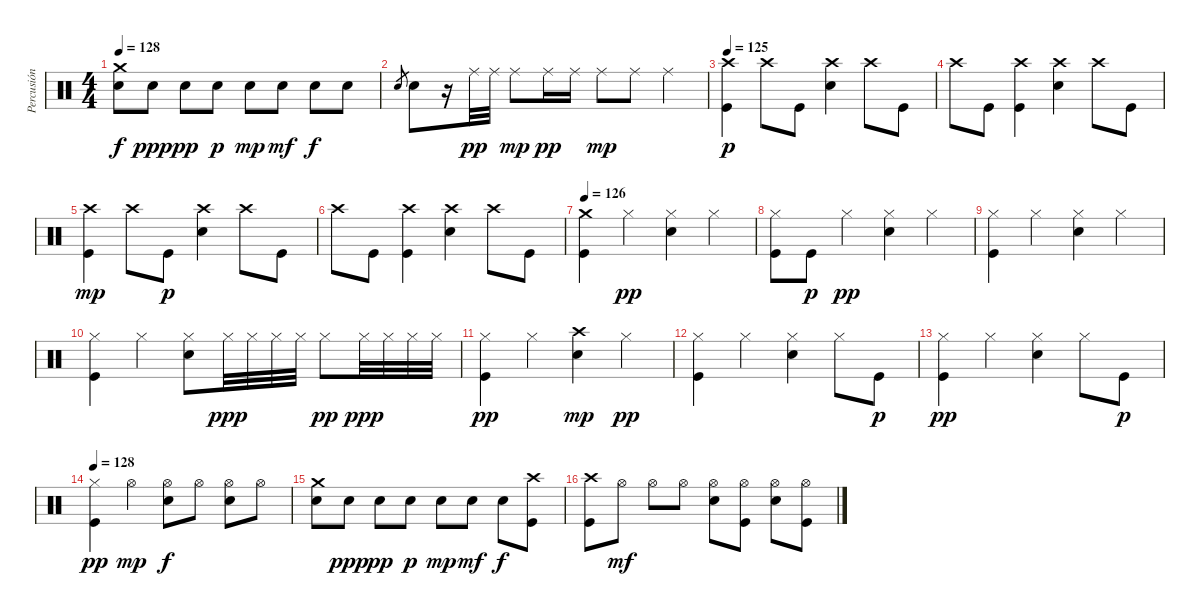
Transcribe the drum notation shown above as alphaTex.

\track ("Percusión" "Percusión") {instrument percussion}
\staff {score}
\articulation defaults
\ts (4 4)
\tempo 128
\clef neutral
\ks c
("Snare (hit) 2" "Crash medium (hit)").8{dy f} "Snare (hit) 2".8{dy ppp} "Snare (hit) 2".8{dy pp} "Snare (hit) 2".8{dy p} "Snare (hit) 2".8{dy mp} "Snare (hit) 2".8{dy mf} "Snare (hit) 2".8{dy f} "Snare (hit) 2".8 |
"Snare (hit) 2".8{gr} "Snare (hit) 2".8 r.16 "Ride (middle)".32{dy pp} "Ride (middle)".32 "Ride (middle)".8{dy mp} "Ride (middle)".16{dy pp} "Ride (middle)".16 "Ride (middle)".8{dy mp} "Ride (middle)".8 "Ride (middle)".4 |
\tempo 125
("Kick (hit)" "Crash high (hit)").4{dy p} "Crash high (hit)".8 "Kick (hit)".8 ("Snare (hit) 2" "Crash high (hit)").4 "Crash high (hit)".8 "Kick (hit)".8 |
"Crash high (hit)".8 "Kick (hit)".8 ("Kick (hit)" "Crash high (hit)").4 ("Snare (hit) 2" "Crash high (hit)").4 "Crash high (hit)".8 "Kick (hit)".8 |
("Kick (hit)" "Crash high (hit)").4{dy mp} "Crash high (hit)".8 "Kick (hit)".8{dy p} ("Snare (hit) 2" "Crash high (hit)").4 "Crash high (hit)".8 "Kick (hit)".8 |
"Crash high (hit)".8 "Kick (hit)".8 ("Kick (hit)" "Crash high (hit)").4 ("Snare (hit) 2" "Crash high (hit)").4 "Crash high (hit)".8 "Kick (hit)".8 |
\tempo 126
("Kick (hit)" "Crash medium (hit)").4 "Hi-Hat (closed)".4{dy pp} ("Snare (hit) 2" "Hi-Hat (closed)").4 "Hi-Hat (closed)".4 |
("Kick (hit)" "Hi-Hat (closed)").8 "Kick (hit)".8{dy p} "Hi-Hat (closed)".4{dy pp} ("Snare (hit) 2" "Hi-Hat (closed)").4 "Hi-Hat (closed)".4 |
("Kick (hit)" "Hi-Hat (closed)").4 "Hi-Hat (closed)".4 ("Snare (hit) 2" "Hi-Hat (closed)").4 "Hi-Hat (closed)".4 |
("Kick (hit)" "Hi-Hat (closed)").4 "Hi-Hat (closed)".4 ("Snare (hit) 2" "Hi-Hat (closed)").8 "Hi-Hat (closed)".32{dy ppp} "Hi-Hat (closed)".32 "Hi-Hat (closed)".32 "Hi-Hat (closed)".32 "Hi-Hat (closed)".8{dy pp} "Hi-Hat (closed)".32{dy ppp} "Hi-Hat (closed)".32 "Hi-Hat (closed)".32 "Hi-Hat (closed)".32 |
("Kick (hit)" "Hi-Hat (closed)").4{dy pp} "Hi-Hat (closed)".4 ("Snare (hit) 2" "Crash high (hit)").4{dy mp} "Hi-Hat (closed)".4{dy pp} |
("Kick (hit)" "Hi-Hat (closed)").4 "Hi-Hat (closed)".4 ("Snare (hit) 2" "Hi-Hat (closed)").4 "Hi-Hat (closed)".8 "Kick (hit)".8{dy p} |
("Kick (hit)" "Hi-Hat (closed)").4{dy pp} "Hi-Hat (closed)".4 ("Snare (hit) 2" "Hi-Hat (closed)").4 "Hi-Hat (closed)".8 "Kick (hit)".8{dy p} |
\tempo 128
("Kick (hit)" "Hi-Hat (closed)").4{dy pp} "Hi-Hat (open)".4{dy mp} ("Snare (hit) 2" "Hi-Hat (open)").8{dy f} "Hi-Hat (open)".8 ("Snare (hit) 2" "Hi-Hat (open)").8 "Hi-Hat (open)".8 |
("Snare (hit) 2" "Crash medium (hit)").8 "Snare (hit) 2".8{dy ppp} "Snare (hit) 2".8{dy pp} "Snare (hit) 2".8{dy p} "Snare (hit) 2".8{dy mp} "Snare (hit) 2".8{dy mf} "Snare (hit) 2".8{dy f} ("Kick (hit)" "Crash high (hit)").8 |
("Kick (hit)" "Crash high (hit)").8 "Hi-Hat (open)".8{dy mf} "Hi-Hat (open)".8 "Hi-Hat (open)".8 ("Snare (hit) 2" "Hi-Hat (open)").8 ("Kick (hit)" "Hi-Hat (open)").8 ("Snare (hit) 2" "Hi-Hat (open)").8 ("Kick (hit)" "Hi-Hat (open)").8
